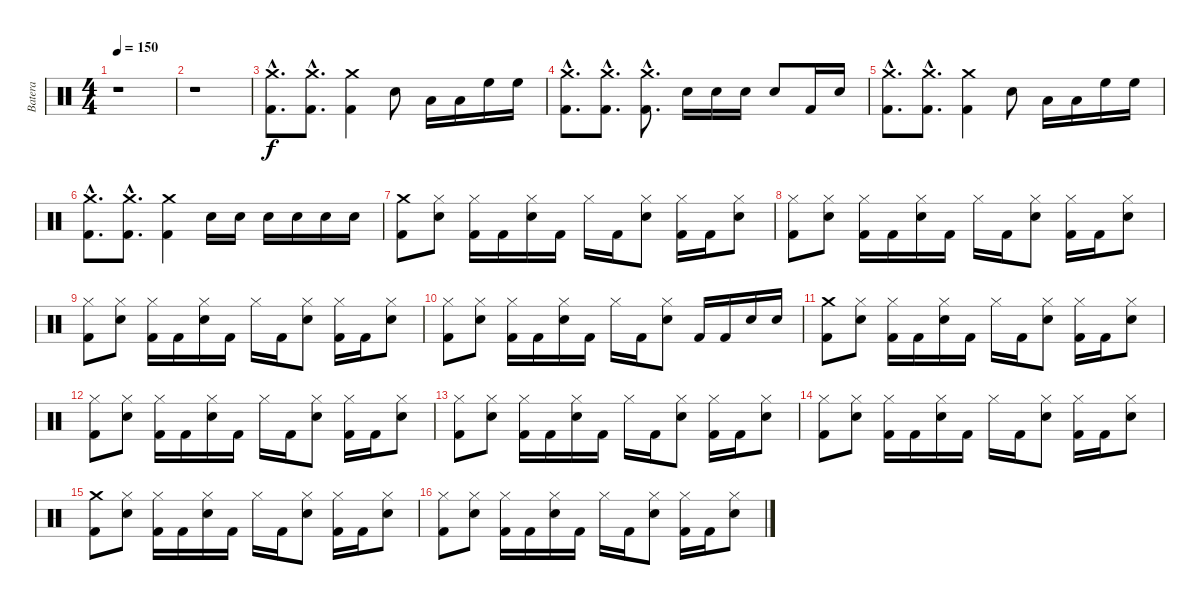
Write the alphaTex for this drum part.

\track ("Batera" "Batera") {instrument percussion}
\staff {score}
\articulation defaults
\ts (4 4)
\tempo 150
\clef neutral
\ks c
r.1{dy f} |
r.1 |
("Kick (hit) 2"{hac} "Crash medium (hit)"{hac}).8{d} ("Kick (hit) 2"{hac} "Crash medium (hit)"{hac}).8{d} ("Kick (hit) 2" "Crash medium (hit)").4 "Snare (hit) 2".8 "Low Tom (hit)".16 "Low Tom (hit)".16 "High Floor Tom (hit)".16 "High Floor Tom (hit)".16 |
("Kick (hit) 2"{hac} "Crash medium (hit)"{hac}).8{d} ("Kick (hit) 2"{hac} "Crash medium (hit)"{hac}).8{d} ("Kick (hit) 2"{hac} "Crash medium (hit)"{hac}).8{d} "Snare (hit) 2".16 "Snare (hit) 2".16 "Snare (hit) 2".16 "Snare (hit) 2".8 "Kick (hit) 2".16 "Snare (hit) 2".16 |
("Kick (hit) 2"{hac} "Crash medium (hit)"{hac}).8{d} ("Kick (hit) 2"{hac} "Crash medium (hit)"{hac}).8{d} ("Kick (hit) 2" "Crash medium (hit)").4 "Snare (hit) 2".8 "Low Tom (hit)".16 "Low Tom (hit)".16 "High Floor Tom (hit)".16 "High Floor Tom (hit)".16 |
("Kick (hit) 2"{hac} "Crash medium (hit)"{hac}).8{d} ("Kick (hit) 2"{hac} "Crash medium (hit)"{hac}).8{d} ("Kick (hit) 2" "Crash medium (hit)").4 "Snare (hit) 2".16 "Snare (hit) 2".16 "Snare (hit) 2".16 "Snare (hit) 2".16 "Snare (hit) 2".16 "Snare (hit) 2".16 |
("Kick (hit) 2" "Crash medium (hit)").8 ("Snare (hit) 2" "Hi-Hat (closed)").8 ("Kick (hit) 2" "Hi-Hat (closed)").16 "Kick (hit) 2".16 ("Snare (hit) 2" "Hi-Hat (closed)").16 "Kick (hit) 2".16 "Hi-Hat (closed)".16 "Kick (hit) 2".16 ("Snare (hit) 2" "Hi-Hat (closed)").8 ("Kick (hit) 2" "Hi-Hat (closed)").16 "Kick (hit) 2".16 ("Snare (hit) 2" "Hi-Hat (closed)").8 |
("Kick (hit) 2" "Hi-Hat (closed)").8 ("Snare (hit) 2" "Hi-Hat (closed)").8 ("Kick (hit) 2" "Hi-Hat (closed)").16 "Kick (hit) 2".16 ("Snare (hit) 2" "Hi-Hat (closed)").16 "Kick (hit) 2".16 "Hi-Hat (closed)".16 "Kick (hit) 2".16 ("Snare (hit) 2" "Hi-Hat (closed)").8 ("Kick (hit) 2" "Hi-Hat (closed)").16 "Kick (hit) 2".16 ("Snare (hit) 2" "Hi-Hat (closed)").8 |
("Kick (hit) 2" "Hi-Hat (closed)").8 ("Snare (hit) 2" "Hi-Hat (closed)").8 ("Kick (hit) 2" "Hi-Hat (closed)").16 "Kick (hit) 2".16 ("Snare (hit) 2" "Hi-Hat (closed)").16 "Kick (hit) 2".16 "Hi-Hat (closed)".16 "Kick (hit) 2".16 ("Snare (hit) 2" "Hi-Hat (closed)").8 ("Kick (hit) 2" "Hi-Hat (closed)").16 "Kick (hit) 2".16 ("Snare (hit) 2" "Hi-Hat (closed)").8 |
("Kick (hit) 2" "Hi-Hat (closed)").8 ("Snare (hit) 2" "Hi-Hat (closed)").8 ("Kick (hit) 2" "Hi-Hat (closed)").16 "Kick (hit) 2".16 ("Snare (hit) 2" "Hi-Hat (closed)").16 "Kick (hit) 2".16 "Hi-Hat (closed)".16 "Kick (hit) 2".16 ("Snare (hit) 2" "Hi-Hat (closed)").8 "Kick (hit) 2".16 "Kick (hit) 2".16 "Snare (hit) 2".16 "Snare (hit) 2".16 |
("Kick (hit) 2" "Crash medium (hit)").8 ("Snare (hit) 2" "Hi-Hat (closed)").8 ("Kick (hit) 2" "Hi-Hat (closed)").16 "Kick (hit) 2".16 ("Snare (hit) 2" "Hi-Hat (closed)").16 "Kick (hit) 2".16 "Hi-Hat (closed)".16 "Kick (hit) 2".16 ("Snare (hit) 2" "Hi-Hat (closed)").8 ("Kick (hit) 2" "Hi-Hat (closed)").16 "Kick (hit) 2".16 ("Snare (hit) 2" "Hi-Hat (closed)").8 |
("Kick (hit) 2" "Hi-Hat (closed)").8 ("Snare (hit) 2" "Hi-Hat (closed)").8 ("Kick (hit) 2" "Hi-Hat (closed)").16 "Kick (hit) 2".16 ("Snare (hit) 2" "Hi-Hat (closed)").16 "Kick (hit) 2".16 "Hi-Hat (closed)".16 "Kick (hit) 2".16 ("Snare (hit) 2" "Hi-Hat (closed)").8 ("Kick (hit) 2" "Hi-Hat (closed)").16 "Kick (hit) 2".16 ("Snare (hit) 2" "Hi-Hat (closed)").8 |
("Kick (hit) 2" "Hi-Hat (closed)").8 ("Snare (hit) 2" "Hi-Hat (closed)").8 ("Kick (hit) 2" "Hi-Hat (closed)").16 "Kick (hit) 2".16 ("Snare (hit) 2" "Hi-Hat (closed)").16 "Kick (hit) 2".16 "Hi-Hat (closed)".16 "Kick (hit) 2".16 ("Snare (hit) 2" "Hi-Hat (closed)").8 ("Kick (hit) 2" "Hi-Hat (closed)").16 "Kick (hit) 2".16 ("Snare (hit) 2" "Hi-Hat (closed)").8 |
("Kick (hit) 2" "Hi-Hat (closed)").8 ("Snare (hit) 2" "Hi-Hat (closed)").8 ("Kick (hit) 2" "Hi-Hat (closed)").16 "Kick (hit) 2".16 ("Snare (hit) 2" "Hi-Hat (closed)").16 "Kick (hit) 2".16 "Hi-Hat (closed)".16 "Kick (hit) 2".16 ("Snare (hit) 2" "Hi-Hat (closed)").8 ("Kick (hit) 2" "Hi-Hat (closed)").16 "Kick (hit) 2".16 ("Snare (hit) 2" "Hi-Hat (closed)").8 |
("Kick (hit) 2" "Crash medium (hit)").8 ("Snare (hit) 2" "Hi-Hat (closed)").8 ("Kick (hit) 2" "Hi-Hat (closed)").16 "Kick (hit) 2".16 ("Snare (hit) 2" "Hi-Hat (closed)").16 "Kick (hit) 2".16 "Hi-Hat (closed)".16 "Kick (hit) 2".16 ("Snare (hit) 2" "Hi-Hat (closed)").8 ("Kick (hit) 2" "Hi-Hat (closed)").16 "Kick (hit) 2".16 ("Snare (hit) 2" "Hi-Hat (closed)").8 |
("Kick (hit) 2" "Hi-Hat (closed)").8 ("Snare (hit) 2" "Hi-Hat (closed)").8 ("Kick (hit) 2" "Hi-Hat (closed)").16 "Kick (hit) 2".16 ("Snare (hit) 2" "Hi-Hat (closed)").16 "Kick (hit) 2".16 "Hi-Hat (closed)".16 "Kick (hit) 2".16 ("Snare (hit) 2" "Hi-Hat (closed)").8 ("Kick (hit) 2" "Hi-Hat (closed)").16 "Kick (hit) 2".16 ("Snare (hit) 2" "Hi-Hat (closed)").8
